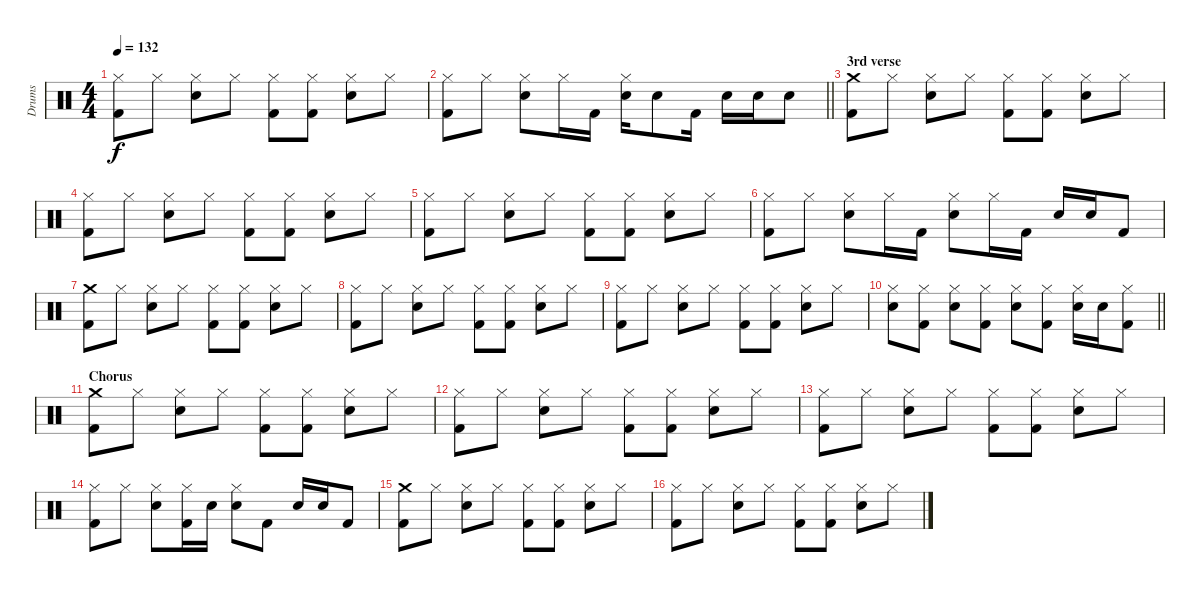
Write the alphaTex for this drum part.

\track ("Drums" "Drums") {instrument percussion}
\staff {score}
\articulation defaults
\ts (4 4)
\tempo 132
\clef neutral
\ks c
("Kick (hit) 2" "Hi-Hat (closed)").8{dy f} "Hi-Hat (closed)".8 ("Snare (hit) 2" "Hi-Hat (closed)").8 "Hi-Hat (closed)".8 ("Kick (hit) 2" "Hi-Hat (closed)").8 ("Kick (hit) 2" "Hi-Hat (closed)").8 ("Snare (hit) 2" "Hi-Hat (closed)").8 "Hi-Hat (closed)".8 |
\barLineRight lightlight
("Kick (hit) 2" "Hi-Hat (closed)").8 "Hi-Hat (closed)".8 ("Snare (hit) 2" "Hi-Hat (closed)").8 "Hi-Hat (closed)".16 "Kick (hit) 2".16 ("Snare (hit) 2" "Hi-Hat (closed)").16 "Snare (hit) 2".8 "Kick (hit) 2".16 "Snare (hit) 2".16 "Snare (hit) 2".16 "Snare (hit) 2".8 |
\section ("" "3rd verse")
("Kick (hit) 2" "Crash medium (hit)").8 "Hi-Hat (closed)".8 ("Snare (hit) 2" "Hi-Hat (closed)").8 "Hi-Hat (closed)".8 ("Kick (hit) 2" "Hi-Hat (closed)").8 ("Kick (hit) 2" "Hi-Hat (closed)").8 ("Snare (hit) 2" "Hi-Hat (closed)").8 "Hi-Hat (closed)".8 |
("Kick (hit) 2" "Hi-Hat (closed)").8 "Hi-Hat (closed)".8 ("Snare (hit) 2" "Hi-Hat (closed)").8 "Hi-Hat (closed)".8 ("Kick (hit) 2" "Hi-Hat (closed)").8 ("Kick (hit) 2" "Hi-Hat (closed)").8 ("Snare (hit) 2" "Hi-Hat (closed)").8 "Hi-Hat (closed)".8 |
("Kick (hit) 2" "Hi-Hat (closed)").8 "Hi-Hat (closed)".8 ("Snare (hit) 2" "Hi-Hat (closed)").8 "Hi-Hat (closed)".8 ("Kick (hit) 2" "Hi-Hat (closed)").8 ("Kick (hit) 2" "Hi-Hat (closed)").8 ("Snare (hit) 2" "Hi-Hat (closed)").8 "Hi-Hat (closed)".8 |
("Kick (hit) 2" "Hi-Hat (closed)").8 "Hi-Hat (closed)".8 ("Snare (hit) 2" "Hi-Hat (closed)").8 "Hi-Hat (closed)".16 "Kick (hit) 2".16 ("Snare (hit) 2" "Hi-Hat (closed)").8 "Hi-Hat (closed)".16 "Kick (hit) 2".16 "Snare (hit) 2".16 "Snare (hit) 2".16 "Kick (hit) 2".8 |
("Kick (hit) 2" "Crash medium (hit)").8 "Hi-Hat (closed)".8 ("Snare (hit) 2" "Hi-Hat (closed)").8 "Hi-Hat (closed)".8 ("Kick (hit) 2" "Hi-Hat (closed)").8 ("Kick (hit) 2" "Hi-Hat (closed)").8 ("Snare (hit) 2" "Hi-Hat (closed)").8 "Hi-Hat (closed)".8 |
("Kick (hit) 2" "Hi-Hat (closed)").8 "Hi-Hat (closed)".8 ("Snare (hit) 2" "Hi-Hat (closed)").8 "Hi-Hat (closed)".8 ("Kick (hit) 2" "Hi-Hat (closed)").8 ("Kick (hit) 2" "Hi-Hat (closed)").8 ("Snare (hit) 2" "Hi-Hat (closed)").8 "Hi-Hat (closed)".8 |
("Kick (hit) 2" "Hi-Hat (closed)").8 "Hi-Hat (closed)".8 ("Snare (hit) 2" "Hi-Hat (closed)").8 "Hi-Hat (closed)".8 ("Kick (hit) 2" "Hi-Hat (closed)").8 ("Kick (hit) 2" "Hi-Hat (closed)").8 ("Snare (hit) 2" "Hi-Hat (closed)").8 "Hi-Hat (closed)".8 |
\barLineRight lightlight
("Snare (hit) 2" "Hi-Hat (closed)").8 ("Kick (hit) 2" "Hi-Hat (closed)").8 ("Snare (hit) 2" "Hi-Hat (closed)").8 ("Kick (hit) 2" "Hi-Hat (closed)").8 ("Snare (hit) 2" "Hi-Hat (closed)").8 ("Kick (hit) 2" "Hi-Hat (closed)").8 ("Snare (hit) 2" "Hi-Hat (closed)").16 "Snare (hit) 2".16 ("Kick (hit) 2" "Hi-Hat (closed)").8 |
\section ("" "Chorus")
("Kick (hit) 2" "Crash medium (hit)").8 "Hi-Hat (closed)".8 ("Snare (hit) 2" "Hi-Hat (closed)").8 "Hi-Hat (closed)".8 ("Kick (hit) 2" "Hi-Hat (closed)").8 ("Kick (hit) 2" "Hi-Hat (closed)").8 ("Snare (hit) 2" "Hi-Hat (closed)").8 "Hi-Hat (closed)".8 |
("Kick (hit) 2" "Hi-Hat (closed)").8 "Hi-Hat (closed)".8 ("Snare (hit) 2" "Hi-Hat (closed)").8 "Hi-Hat (closed)".8 ("Kick (hit) 2" "Hi-Hat (closed)").8 ("Kick (hit) 2" "Hi-Hat (closed)").8 ("Snare (hit) 2" "Hi-Hat (closed)").8 "Hi-Hat (closed)".8 |
("Kick (hit) 2" "Hi-Hat (closed)").8 "Hi-Hat (closed)".8 ("Snare (hit) 2" "Hi-Hat (closed)").8 "Hi-Hat (closed)".8 ("Kick (hit) 2" "Hi-Hat (closed)").8 ("Kick (hit) 2" "Hi-Hat (closed)").8 ("Snare (hit) 2" "Hi-Hat (closed)").8 "Hi-Hat (closed)".8 |
("Kick (hit) 2" "Hi-Hat (closed)").8 "Hi-Hat (closed)".8 ("Snare (hit) 2" "Hi-Hat (closed)").8 ("Kick (hit) 2" "Hi-Hat (closed)").16 "Snare (hit) 2".16 ("Snare (hit) 2" "Hi-Hat (closed)").8 "Kick (hit) 2".8 "Snare (hit) 2".16 "Snare (hit) 2".16 "Kick (hit) 2".8 |
("Kick (hit) 2" "Crash medium (hit)").8 "Hi-Hat (closed)".8 ("Snare (hit) 2" "Hi-Hat (closed)").8 "Hi-Hat (closed)".8 ("Kick (hit) 2" "Hi-Hat (closed)").8 ("Kick (hit) 2" "Hi-Hat (closed)").8 ("Snare (hit) 2" "Hi-Hat (closed)").8 "Hi-Hat (closed)".8 |
("Kick (hit) 2" "Hi-Hat (closed)").8 "Hi-Hat (closed)".8 ("Snare (hit) 2" "Hi-Hat (closed)").8 "Hi-Hat (closed)".8 ("Kick (hit) 2" "Hi-Hat (closed)").8 ("Kick (hit) 2" "Hi-Hat (closed)").8 ("Snare (hit) 2" "Hi-Hat (closed)").8 "Hi-Hat (closed)".8
